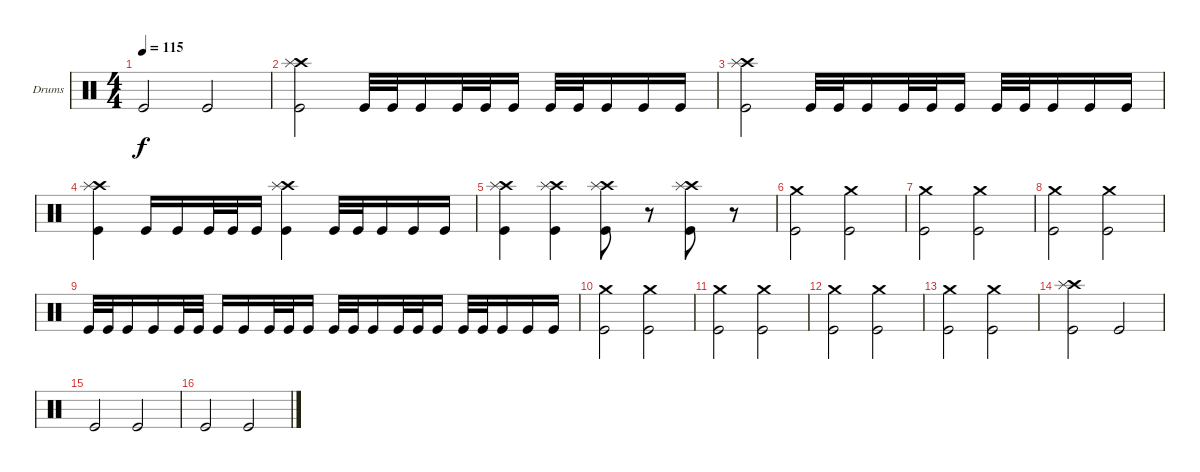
\bracketExtendMode groupsimilarinstruments
\firstSystemTrackNameOrientation horizontal
\otherSystemsTrackNameOrientation horizontal
\track ("Drumkit" "Drums") {instrument percussion}
\staff {score}
\articulation defaults
\ts (4 4)
\tempo 115
\clef neutral
\ks c "Kick (hit)".2{dy f} "Kick (hit)".2
|
("Kick (hit)" "Crash high (hit)" "Splash (hit)").2 "Kick (hit)".32 "Kick (hit)".32 "Kick (hit)".16 "Kick (hit)".32 "Kick (hit)".32 "Kick (hit)".16 "Kick (hit)".32 "Kick (hit)".32 "Kick (hit)".16 "Kick (hit)".16 "Kick (hit)".16 |
("Kick (hit)" "Crash high (hit)" "Splash (hit)").2 "Kick (hit)".32 "Kick (hit)".32 "Kick (hit)".16 "Kick (hit)".32 "Kick (hit)".32 "Kick (hit)".16 "Kick (hit)".32 "Kick (hit)".32 "Kick (hit)".16 "Kick (hit)".16 "Kick (hit)".16 |
("Crash high (hit)" "Splash (hit)" "Kick (hit)").4 "Kick (hit)".16 "Kick (hit)".16 "Kick (hit)".32 "Kick (hit)".32 "Kick (hit)".16 ("Crash high (hit)" "Splash (hit)" "Kick (hit)").4 "Kick (hit)".32 "Kick (hit)".32 "Kick (hit)".16 "Kick (hit)".16 "Kick (hit)".16 |
\scale
0.333333 ("Crash high (hit)" "Splash (hit)" "Kick (hit)").4 ("Crash high (hit)" "Splash (hit)" "Kick (hit)").4 ("Crash high (hit)" "Splash (hit)" "Kick (hit)").8 r.8 ("Crash high (hit)" "Splash (hit)" "Kick (hit)").8 r.8 |
\scale
0.333333 ("Kick (hit)" "Crash medium (hit)").2 ("Kick (hit)" "Crash medium (hit)").2 |
\scale
0.333333 ("Kick (hit)" "Crash medium (hit)").2 ("Kick (hit)" "Crash medium (hit)").2 |
\scale
0.333333 ("Kick (hit)" "Crash medium (hit)").2 ("Kick (hit)" "Crash medium (hit)").2 |
\scale
0.333333 "Kick (hit)".32 "Kick (hit)".32 "Kick (hit)".16 "Kick (hit)".16 "Kick (hit)".32 "Kick (hit)".32 "Kick (hit)".16 "Kick (hit)".16 "Kick (hit)".32 "Kick (hit)".32 "Kick (hit)".16 "Kick (hit)".32 "Kick (hit)".32 "Kick (hit)".16 "Kick (hit)".32 "Kick (hit)".32 "Kick (hit)".16 "Kick (hit)".32 "Kick (hit)".32 "Kick (hit)".16 "Kick (hit)".16 "Kick (hit)".16 |
\scale
0.333333 ("Kick (hit)" "Crash medium (hit)").2 ("Kick (hit)" "Crash medium (hit)").2 |
\scale
0.333333 ("Kick (hit)" "Crash medium (hit)").2 ("Kick (hit)" "Crash medium (hit)").2 |
\scale
0.333333 ("Kick (hit)" "Crash medium (hit)").2 ("Kick (hit)" "Crash medium (hit)").2 |
\scale
0.333333 ("Kick (hit)" "Crash medium (hit)").2 ("Kick (hit)" "Crash medium (hit)").2 |
\scale
0.333333 ("Kick (hit)" "Crash high (hit)" "Splash (hit)").2 "Kick (hit)".2 |
\scale
0.333333 "Kick (hit)".2 "Kick (hit)".2 |
"Kick (hit)".2 "Kick (hit)".2
